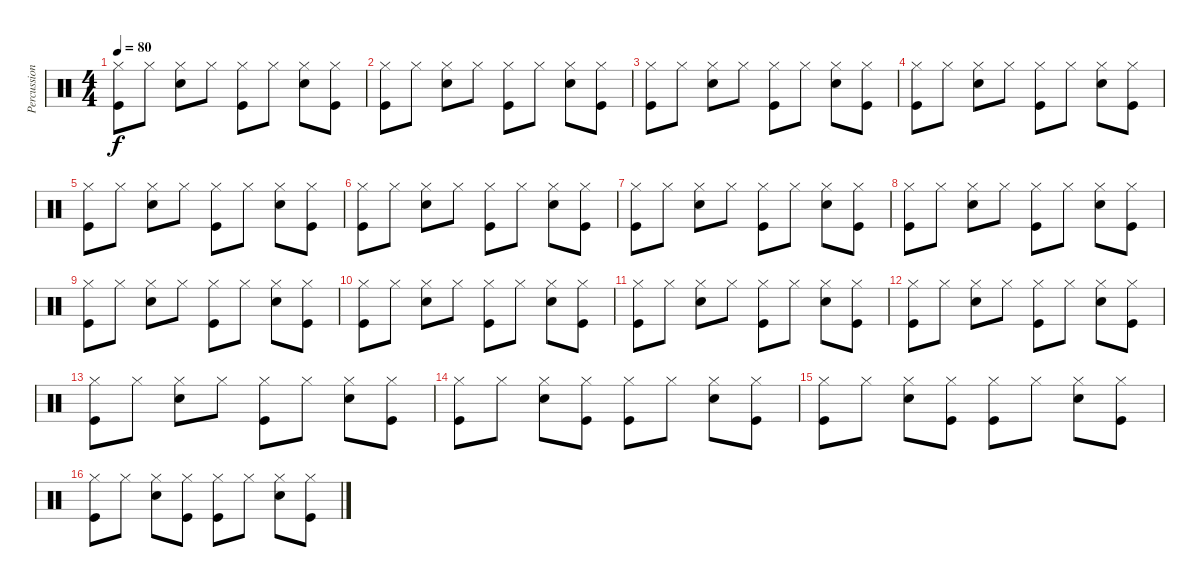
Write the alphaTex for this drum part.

\track ("Percussions" "Percussion") {instrument percussion}
\staff {score}
\articulation defaults
\ts (4 4)
\tempo 80
\clef neutral
\ks c
("Hi-Hat (closed)" "Kick (hit)").8{dy f} "Hi-Hat (closed)".8 ("Hi-Hat (closed)" "Snare (hit) 2").8 "Hi-Hat (closed)".8 ("Hi-Hat (closed)" "Kick (hit)").8 "Hi-Hat (closed)".8 ("Hi-Hat (closed)" "Snare (hit) 2").8 ("Hi-Hat (closed)" "Kick (hit)").8 |
("Hi-Hat (closed)" "Kick (hit)").8 "Hi-Hat (closed)".8 ("Hi-Hat (closed)" "Snare (hit) 2").8 "Hi-Hat (closed)".8 ("Hi-Hat (closed)" "Kick (hit)").8 "Hi-Hat (closed)".8 ("Hi-Hat (closed)" "Snare (hit) 2").8 ("Hi-Hat (closed)" "Kick (hit)").8 |
("Hi-Hat (closed)" "Kick (hit)").8 "Hi-Hat (closed)".8 ("Hi-Hat (closed)" "Snare (hit) 2").8 "Hi-Hat (closed)".8 ("Hi-Hat (closed)" "Kick (hit)").8 "Hi-Hat (closed)".8 ("Hi-Hat (closed)" "Snare (hit) 2").8 ("Hi-Hat (closed)" "Kick (hit)").8 |
("Hi-Hat (closed)" "Kick (hit)").8 "Hi-Hat (closed)".8 ("Hi-Hat (closed)" "Snare (hit) 2").8 "Hi-Hat (closed)".8 ("Hi-Hat (closed)" "Kick (hit)").8 "Hi-Hat (closed)".8 ("Hi-Hat (closed)" "Snare (hit) 2").8 ("Hi-Hat (closed)" "Kick (hit)").8 |
("Hi-Hat (closed)" "Kick (hit)").8 "Hi-Hat (closed)".8 ("Hi-Hat (closed)" "Snare (hit) 2").8 "Hi-Hat (closed)".8 ("Hi-Hat (closed)" "Kick (hit)").8 "Hi-Hat (closed)".8 ("Hi-Hat (closed)" "Snare (hit) 2").8 ("Hi-Hat (closed)" "Kick (hit)").8 |
("Hi-Hat (closed)" "Kick (hit)").8 "Hi-Hat (closed)".8 ("Hi-Hat (closed)" "Snare (hit) 2").8 "Hi-Hat (closed)".8 ("Hi-Hat (closed)" "Kick (hit)").8 "Hi-Hat (closed)".8 ("Hi-Hat (closed)" "Snare (hit) 2").8 ("Hi-Hat (closed)" "Kick (hit)").8 |
("Hi-Hat (closed)" "Kick (hit)").8 "Hi-Hat (closed)".8 ("Hi-Hat (closed)" "Snare (hit) 2").8 "Hi-Hat (closed)".8 ("Hi-Hat (closed)" "Kick (hit)").8 "Hi-Hat (closed)".8 ("Hi-Hat (closed)" "Snare (hit) 2").8 ("Hi-Hat (closed)" "Kick (hit)").8 |
("Hi-Hat (closed)" "Kick (hit)").8 "Hi-Hat (closed)".8 ("Hi-Hat (closed)" "Snare (hit) 2").8 "Hi-Hat (closed)".8 ("Hi-Hat (closed)" "Kick (hit)").8 "Hi-Hat (closed)".8 ("Hi-Hat (closed)" "Snare (hit) 2").8 ("Hi-Hat (closed)" "Kick (hit)").8 |
("Hi-Hat (closed)" "Kick (hit)").8 "Hi-Hat (closed)".8 ("Hi-Hat (closed)" "Snare (hit) 2").8 "Hi-Hat (closed)".8 ("Hi-Hat (closed)" "Kick (hit)").8 "Hi-Hat (closed)".8 ("Hi-Hat (closed)" "Snare (hit) 2").8 ("Hi-Hat (closed)" "Kick (hit)").8 |
("Hi-Hat (closed)" "Kick (hit)").8 "Hi-Hat (closed)".8 ("Hi-Hat (closed)" "Snare (hit) 2").8 "Hi-Hat (closed)".8 ("Hi-Hat (closed)" "Kick (hit)").8 "Hi-Hat (closed)".8 ("Hi-Hat (closed)" "Snare (hit) 2").8 ("Hi-Hat (closed)" "Kick (hit)").8 |
("Hi-Hat (closed)" "Kick (hit)").8 "Hi-Hat (closed)".8 ("Hi-Hat (closed)" "Snare (hit) 2").8 "Hi-Hat (closed)".8 ("Hi-Hat (closed)" "Kick (hit)").8 "Hi-Hat (closed)".8 ("Hi-Hat (closed)" "Snare (hit) 2").8 ("Hi-Hat (closed)" "Kick (hit)").8 |
("Hi-Hat (closed)" "Kick (hit)").8 "Hi-Hat (closed)".8 ("Hi-Hat (closed)" "Snare (hit) 2").8 "Hi-Hat (closed)".8 ("Hi-Hat (closed)" "Kick (hit)").8 "Hi-Hat (closed)".8 ("Hi-Hat (closed)" "Snare (hit) 2").8 ("Hi-Hat (closed)" "Kick (hit)").8 |
("Hi-Hat (closed)" "Kick (hit)").8 "Hi-Hat (closed)".8 ("Hi-Hat (closed)" "Snare (hit) 2").8 "Hi-Hat (closed)".8 ("Hi-Hat (closed)" "Kick (hit)").8 "Hi-Hat (closed)".8 ("Hi-Hat (closed)" "Snare (hit) 2").8 ("Hi-Hat (closed)" "Kick (hit)").8 |
("Hi-Hat (closed)" "Kick (hit)").8 "Hi-Hat (closed)".8 ("Hi-Hat (closed)" "Electric Snare (hit)").8 ("Hi-Hat (closed)" "Kick (hit)").8 ("Hi-Hat (closed)" "Kick (hit)").8 "Hi-Hat (closed)".8 ("Hi-Hat (closed)" "Snare (hit) 2").8 ("Hi-Hat (closed)" "Kick (hit)").8 |
("Hi-Hat (closed)" "Kick (hit)").8 "Hi-Hat (closed)".8 ("Hi-Hat (closed)" "Electric Snare (hit)").8 ("Hi-Hat (closed)" "Kick (hit)").8 ("Hi-Hat (closed)" "Kick (hit)").8 "Hi-Hat (closed)".8 ("Hi-Hat (closed)" "Snare (hit) 2").8 ("Hi-Hat (closed)" "Kick (hit)").8 |
("Hi-Hat (closed)" "Kick (hit)").8 "Hi-Hat (closed)".8 ("Hi-Hat (closed)" "Electric Snare (hit)").8 ("Hi-Hat (closed)" "Kick (hit)").8 ("Hi-Hat (closed)" "Kick (hit)").8 "Hi-Hat (closed)".8 ("Hi-Hat (closed)" "Snare (hit) 2").8 ("Hi-Hat (closed)" "Kick (hit)").8
